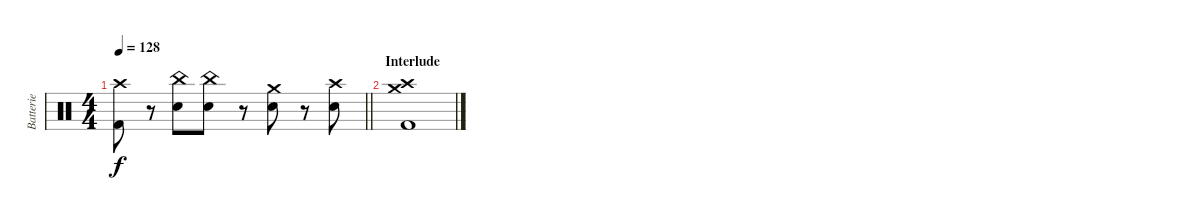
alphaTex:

\track ("Batterie" "Batterie") {instrument percussion}
\staff {score}
\articulation defaults
\ts (4 4)
\tempo 128
\clef neutral
\barLineRight lightlight
\ks c
("Kick (hit) 2" "Crash high (hit)").8{dy f} r.8 ("Electric Snare (hit)" "China (hit)").8 ("Electric Snare (hit)" "China (hit)").8 r.8 ("Electric Snare (hit)" "Crash medium (hit)").8 r.8 ("Electric Snare (hit)" "Crash high (hit)").8 |
\section ("" "Interlude")
("Kick (hit) 2" "Crash medium (hit)" "Crash high (hit)").1
